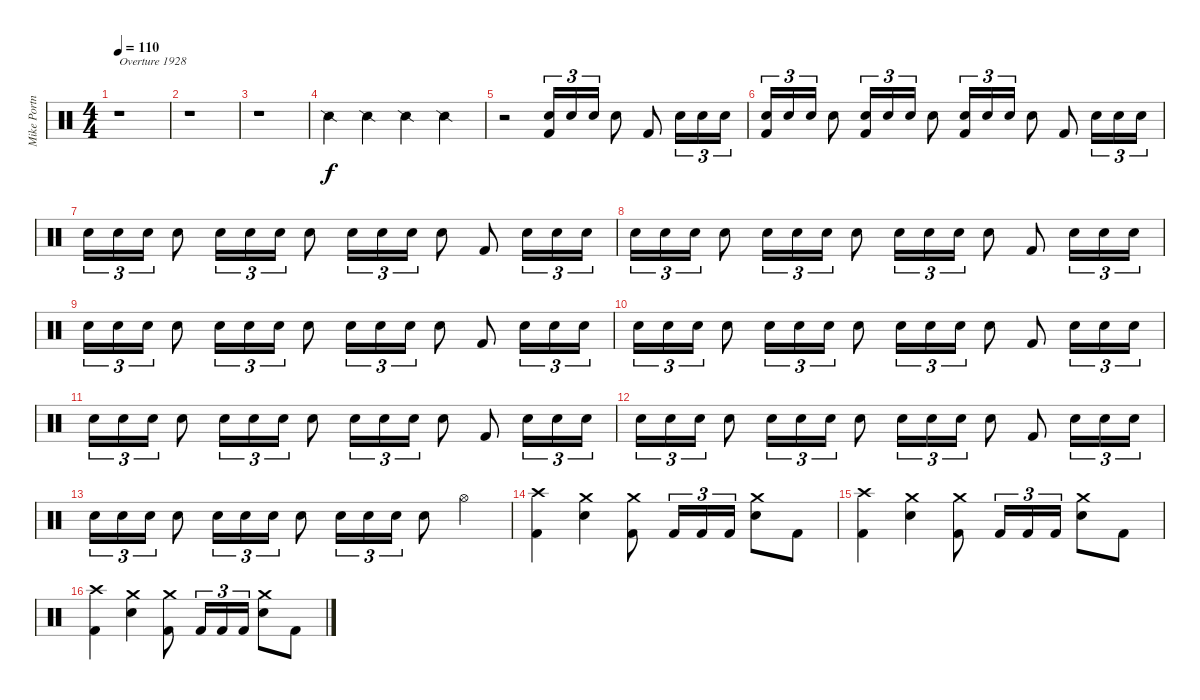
\track ("Mike Portnoy - Drums" "Mike Portn") {instrument percussion}
\staff {score}
\articulation defaults
\ts (4 4)
\tempo 110
\clef neutral
\ks c
r.1{txt "Overture 1928" dy f} |
r.1 |
r.1 |
"Snare (side stick) 2".4 "Snare (side stick) 2".4 "Snare (side stick) 2".4 "Snare (side stick) 2".4 |
r.2 ("Electric Snare (hit)" "Kick (hit) 2").16{tu (3 2)} "Electric Snare (hit)".16{tu (3 2)} "Electric Snare (hit)".16{tu (3 2)} "Electric Snare (hit)".8 "Kick (hit) 2".8 "Electric Snare (hit)".16{tu (3 2)} "Electric Snare (hit)".16{tu (3 2)} "Electric Snare (hit)".16{tu (3 2)} |
("Electric Snare (hit)" "Kick (hit) 2").16{tu (3 2)} "Electric Snare (hit)".16{tu (3 2)} "Electric Snare (hit)".16{tu (3 2)} "Electric Snare (hit)".8 ("Electric Snare (hit)" "Kick (hit) 2").16{tu (3 2)} "Electric Snare (hit)".16{tu (3 2)} "Electric Snare (hit)".16{tu (3 2)} "Electric Snare (hit)".8 ("Electric Snare (hit)" "Kick (hit) 2").16{tu (3 2)} "Electric Snare (hit)".16{tu (3 2)} "Electric Snare (hit)".16{tu (3 2)} "Electric Snare (hit)".8 "Kick (hit) 2".8 "Electric Snare (hit)".16{tu (3 2)} "Electric Snare (hit)".16{tu (3 2)} "Electric Snare (hit)".16{tu (3 2)} |
"Electric Snare (hit)".16{tu (3 2)} "Electric Snare (hit)".16{tu (3 2)} "Electric Snare (hit)".16{tu (3 2)} "Electric Snare (hit)".8 "Electric Snare (hit)".16{tu (3 2)} "Electric Snare (hit)".16{tu (3 2)} "Electric Snare (hit)".16{tu (3 2)} "Electric Snare (hit)".8 "Electric Snare (hit)".16{tu (3 2)} "Electric Snare (hit)".16{tu (3 2)} "Electric Snare (hit)".16{tu (3 2)} "Electric Snare (hit)".8 "Kick (hit) 2".8 "Electric Snare (hit)".16{tu (3 2)} "Electric Snare (hit)".16{tu (3 2)} "Electric Snare (hit)".16{tu (3 2)} |
"Electric Snare (hit)".16{tu (3 2)} "Electric Snare (hit)".16{tu (3 2)} "Electric Snare (hit)".16{tu (3 2)} "Electric Snare (hit)".8 "Electric Snare (hit)".16{tu (3 2)} "Electric Snare (hit)".16{tu (3 2)} "Electric Snare (hit)".16{tu (3 2)} "Electric Snare (hit)".8 "Electric Snare (hit)".16{tu (3 2)} "Electric Snare (hit)".16{tu (3 2)} "Electric Snare (hit)".16{tu (3 2)} "Electric Snare (hit)".8 "Kick (hit) 2".8 "Electric Snare (hit)".16{tu (3 2)} "Electric Snare (hit)".16{tu (3 2)} "Electric Snare (hit)".16{tu (3 2)} |
"Electric Snare (hit)".16{tu (3 2)} "Electric Snare (hit)".16{tu (3 2)} "Electric Snare (hit)".16{tu (3 2)} "Electric Snare (hit)".8 "Electric Snare (hit)".16{tu (3 2)} "Electric Snare (hit)".16{tu (3 2)} "Electric Snare (hit)".16{tu (3 2)} "Electric Snare (hit)".8 "Electric Snare (hit)".16{tu (3 2)} "Electric Snare (hit)".16{tu (3 2)} "Electric Snare (hit)".16{tu (3 2)} "Electric Snare (hit)".8 "Kick (hit) 2".8 "Electric Snare (hit)".16{tu (3 2)} "Electric Snare (hit)".16{tu (3 2)} "Electric Snare (hit)".16{tu (3 2)} |
"Electric Snare (hit)".16{tu (3 2)} "Electric Snare (hit)".16{tu (3 2)} "Electric Snare (hit)".16{tu (3 2)} "Electric Snare (hit)".8 "Electric Snare (hit)".16{tu (3 2)} "Electric Snare (hit)".16{tu (3 2)} "Electric Snare (hit)".16{tu (3 2)} "Electric Snare (hit)".8 "Electric Snare (hit)".16{tu (3 2)} "Electric Snare (hit)".16{tu (3 2)} "Electric Snare (hit)".16{tu (3 2)} "Electric Snare (hit)".8 "Kick (hit) 2".8 "Electric Snare (hit)".16{tu (3 2)} "Electric Snare (hit)".16{tu (3 2)} "Electric Snare (hit)".16{tu (3 2)} |
"Electric Snare (hit)".16{tu (3 2)} "Electric Snare (hit)".16{tu (3 2)} "Electric Snare (hit)".16{tu (3 2)} "Electric Snare (hit)".8 "Electric Snare (hit)".16{tu (3 2)} "Electric Snare (hit)".16{tu (3 2)} "Electric Snare (hit)".16{tu (3 2)} "Electric Snare (hit)".8 "Electric Snare (hit)".16{tu (3 2)} "Electric Snare (hit)".16{tu (3 2)} "Electric Snare (hit)".16{tu (3 2)} "Electric Snare (hit)".8 "Kick (hit) 2".8 "Electric Snare (hit)".16{tu (3 2)} "Electric Snare (hit)".16{tu (3 2)} "Electric Snare (hit)".16{tu (3 2)} |
"Electric Snare (hit)".16{tu (3 2)} "Electric Snare (hit)".16{tu (3 2)} "Electric Snare (hit)".16{tu (3 2)} "Electric Snare (hit)".8 "Electric Snare (hit)".16{tu (3 2)} "Electric Snare (hit)".16{tu (3 2)} "Electric Snare (hit)".16{tu (3 2)} "Electric Snare (hit)".8 "Electric Snare (hit)".16{tu (3 2)} "Electric Snare (hit)".16{tu (3 2)} "Electric Snare (hit)".16{tu (3 2)} "Electric Snare (hit)".8 "Kick (hit) 2".8 "Electric Snare (hit)".16{tu (3 2)} "Electric Snare (hit)".16{tu (3 2)} "Electric Snare (hit)".16{tu (3 2)} |
"Electric Snare (hit)".16{tu (3 2)} "Electric Snare (hit)".16{tu (3 2)} "Electric Snare (hit)".16{tu (3 2)} "Electric Snare (hit)".8 "Electric Snare (hit)".16{tu (3 2)} "Electric Snare (hit)".16{tu (3 2)} "Electric Snare (hit)".16{tu (3 2)} "Electric Snare (hit)".8 "Electric Snare (hit)".16{tu (3 2)} "Electric Snare (hit)".16{tu (3 2)} "Electric Snare (hit)".16{tu (3 2)} "Electric Snare (hit)".8 "Hi-Hat (open)".4 |
("Crash high (hit)" "Kick (hit) 2").4 ("Crash medium (hit)" "Electric Snare (hit)").4 ("Crash medium (hit)" "Kick (hit) 2").8 "Kick (hit) 2".16{tu (3 2)} "Kick (hit) 2".16{tu (3 2)} "Kick (hit) 2".16{tu (3 2)} ("Crash medium (hit)" "Electric Snare (hit)").8 "Kick (hit) 2".8 |
("Crash high (hit)" "Kick (hit) 2").4 ("Crash medium (hit)" "Electric Snare (hit)").4 ("Crash medium (hit)" "Kick (hit) 2").8 "Kick (hit) 2".16{tu (3 2)} "Kick (hit) 2".16{tu (3 2)} "Kick (hit) 2".16{tu (3 2)} ("Crash medium (hit)" "Electric Snare (hit)").8 "Kick (hit) 2".8 |
("Crash high (hit)" "Kick (hit) 2").4 ("Crash medium (hit)" "Electric Snare (hit)").4 ("Crash medium (hit)" "Kick (hit) 2").8 "Kick (hit) 2".16{tu (3 2)} "Kick (hit) 2".16{tu (3 2)} "Kick (hit) 2".16{tu (3 2)} ("Crash medium (hit)" "Electric Snare (hit)").8 "Kick (hit) 2".8
